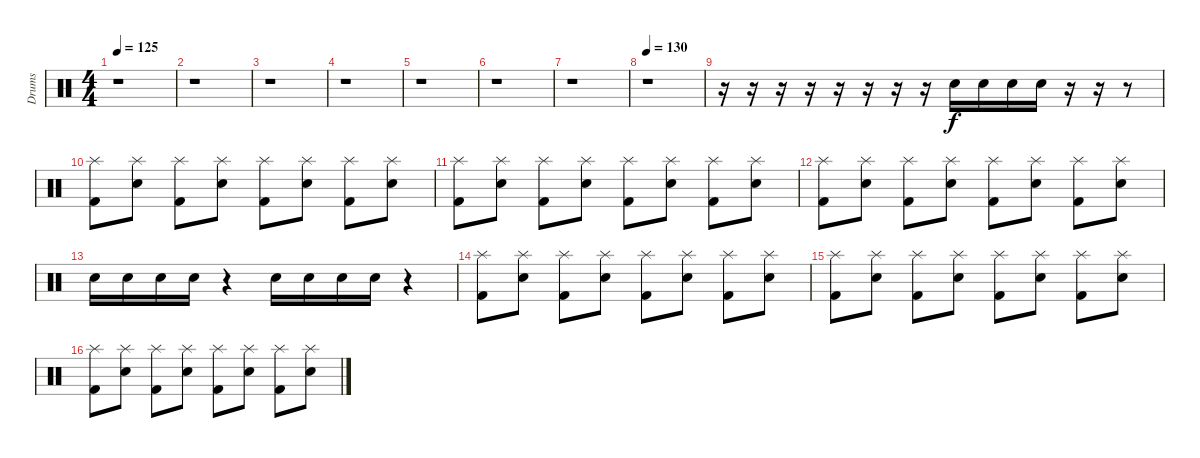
\track ("Drums" "Drums") {instrument percussion}
\staff {score}
\articulation defaults
\ts (4 4)
\tempo 125
\tempo 113
\tempo 125
\clef neutral
\ks c
r.1{dy f} |
r.1 |
r.1 |
r.1 |
r.1 |
r.1 |
r.1 |
\tempo 130
r.1 |
r.16 r.16 r.16 r.16 r.16 r.16 r.16 r.16 "Electric Snare (hit)".16 "Electric Snare (hit)".16 "Electric Snare (hit)".16 "Electric Snare (hit)".16 r.16 r.16 r.8 |
("Splash (hit)" "Kick (hit) 2").8 ("Splash (hit)" "Electric Snare (hit)").8 ("Splash (hit)" "Kick (hit) 2").8 ("Splash (hit)" "Electric Snare (hit)").8 ("Splash (hit)" "Kick (hit) 2").8 ("Splash (hit)" "Electric Snare (hit)").8 ("Splash (hit)" "Kick (hit) 2").8 ("Splash (hit)" "Electric Snare (hit)").8 |
("Splash (hit)" "Kick (hit) 2").8 ("Splash (hit)" "Electric Snare (hit)").8 ("Splash (hit)" "Kick (hit) 2").8 ("Splash (hit)" "Electric Snare (hit)").8 ("Splash (hit)" "Kick (hit) 2").8 ("Splash (hit)" "Electric Snare (hit)").8 ("Splash (hit)" "Kick (hit) 2").8 ("Splash (hit)" "Electric Snare (hit)").8 |
("Splash (hit)" "Kick (hit) 2").8 ("Splash (hit)" "Electric Snare (hit)").8 ("Splash (hit)" "Kick (hit) 2").8 ("Splash (hit)" "Electric Snare (hit)").8 ("Splash (hit)" "Kick (hit) 2").8 ("Splash (hit)" "Electric Snare (hit)").8 ("Splash (hit)" "Kick (hit) 2").8 ("Splash (hit)" "Electric Snare (hit)").8 |
"Electric Snare (hit)".16 "Electric Snare (hit)".16 "Electric Snare (hit)".16 "Electric Snare (hit)".16 r.4 "Electric Snare (hit)".16 "Electric Snare (hit)".16 "Electric Snare (hit)".16 "Electric Snare (hit)".16 r.4 |
("Splash (hit)" "Kick (hit) 2").8 ("Splash (hit)" "Electric Snare (hit)").8 ("Splash (hit)" "Kick (hit) 2").8 ("Splash (hit)" "Electric Snare (hit)").8 ("Splash (hit)" "Kick (hit) 2").8 ("Splash (hit)" "Electric Snare (hit)").8 ("Splash (hit)" "Kick (hit) 2").8 ("Splash (hit)" "Electric Snare (hit)").8 |
("Splash (hit)" "Kick (hit) 2").8 ("Splash (hit)" "Electric Snare (hit)").8 ("Splash (hit)" "Kick (hit) 2").8 ("Splash (hit)" "Electric Snare (hit)").8 ("Splash (hit)" "Kick (hit) 2").8 ("Splash (hit)" "Electric Snare (hit)").8 ("Splash (hit)" "Kick (hit) 2").8 ("Splash (hit)" "Electric Snare (hit)").8 |
("Splash (hit)" "Kick (hit) 2").8 ("Splash (hit)" "Electric Snare (hit)").8 ("Splash (hit)" "Kick (hit) 2").8 ("Splash (hit)" "Electric Snare (hit)").8 ("Splash (hit)" "Kick (hit) 2").8 ("Splash (hit)" "Electric Snare (hit)").8 ("Splash (hit)" "Kick (hit) 2").8 ("Splash (hit)" "Electric Snare (hit)").8
